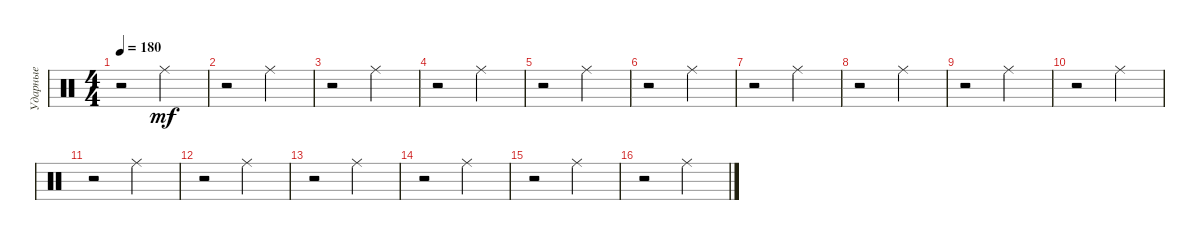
\track ("Ударные" "Ударные") {instrument percussion}
\staff {score}
\articulation defaults
\ts (4 4)
\tempo 180
\clef neutral
\ks c
r.2{dy mf} "Ride (middle)".2 |
r.2 "Ride (middle)".2 |
r.2 "Ride (middle)".2 |
r.2 "Ride (middle)".2 |
r.2 "Ride (middle)".2 |
r.2 "Ride (middle)".2 |
r.2 "Ride (middle)".2 |
r.2 "Ride (middle)".2 |
r.2 "Ride (middle)".2 |
r.2 "Ride (middle)".2 |
r.2 "Ride (middle)".2 |
r.2 "Ride (middle)".2 |
r.2 "Ride (middle)".2 |
r.2 "Ride (middle)".2 |
r.2 "Ride (middle)".2 |
r.2 "Ride (middle)".2
